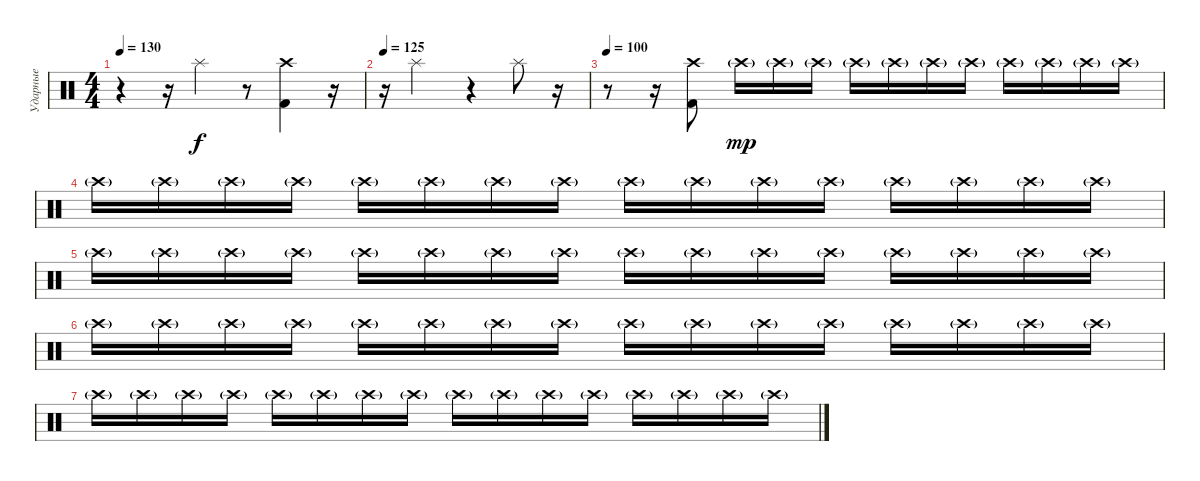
\track ("Ударные" "Ударные") {instrument percussion}
\staff {score}
\articulation defaults
\ts (4 4)
\tempo 130
\clef neutral
\ks c
r.4{dy f} r.16 "Splash (hit)".4 r.8 ("Crash high (hit)" "Kick (hit) 2").4 r.16 |
\tempo 125
r.16 "Splash (hit)".2 r.4 "Splash (hit)".8 r.16 |
\tempo 100
r.8 r.16 ("Crash high (hit)" "Kick (hit) 2").8 "Crash high (hit)"{g}.16{dy mp} "Crash high (hit)"{g}.16 "Crash high (hit)"{g}.16 "Crash high (hit)"{g}.16 "Crash high (hit)"{g}.16 "Crash high (hit)"{g}.16 "Crash high (hit)"{g}.16 "Crash high (hit)"{g}.16 "Crash high (hit)"{g}.16 "Crash high (hit)"{g}.16 "Crash high (hit)"{g}.16 |
"Crash high (hit)"{g}.16 "Crash high (hit)"{g}.16 "Crash high (hit)"{g}.16 "Crash high (hit)"{g}.16 "Crash high (hit)"{g}.16 "Crash high (hit)"{g}.16 "Crash high (hit)"{g}.16 "Crash high (hit)"{g}.16 "Crash high (hit)"{g}.16 "Crash high (hit)"{g}.16 "Crash high (hit)"{g}.16 "Crash high (hit)"{g}.16 "Crash high (hit)"{g}.16 "Crash high (hit)"{g}.16 "Crash high (hit)"{g}.16 "Crash high (hit)"{g}.16 |
"Crash high (hit)"{g}.16 "Crash high (hit)"{g}.16 "Crash high (hit)"{g}.16 "Crash high (hit)"{g}.16 "Crash high (hit)"{g}.16 "Crash high (hit)"{g}.16 "Crash high (hit)"{g}.16 "Crash high (hit)"{g}.16 "Crash high (hit)"{g}.16 "Crash high (hit)"{g}.16 "Crash high (hit)"{g}.16 "Crash high (hit)"{g}.16 "Crash high (hit)"{g}.16 "Crash high (hit)"{g}.16 "Crash high (hit)"{g}.16 "Crash high (hit)"{g}.16 |
"Crash high (hit)"{g}.16 "Crash high (hit)"{g}.16 "Crash high (hit)"{g}.16 "Crash high (hit)"{g}.16 "Crash high (hit)"{g}.16 "Crash high (hit)"{g}.16 "Crash high (hit)"{g}.16 "Crash high (hit)"{g}.16 "Crash high (hit)"{g}.16 "Crash high (hit)"{g}.16 "Crash high (hit)"{g}.16 "Crash high (hit)"{g}.16 "Crash high (hit)"{g}.16 "Crash high (hit)"{g}.16 "Crash high (hit)"{g}.16 "Crash high (hit)"{g}.16 |
"Crash high (hit)"{g}.16 "Crash high (hit)"{g}.16 "Crash high (hit)"{g}.16 "Crash high (hit)"{g}.16 "Crash high (hit)"{g}.16 "Crash high (hit)"{g}.16 "Crash high (hit)"{g}.16 "Crash high (hit)"{g}.16 "Crash high (hit)"{g}.16 "Crash high (hit)"{g}.16 "Crash high (hit)"{g}.16 "Crash high (hit)"{g}.16 "Crash high (hit)"{g}.16 "Crash high (hit)"{g}.16 "Crash high (hit)"{g}.16 "Crash high (hit)"{g}.16
